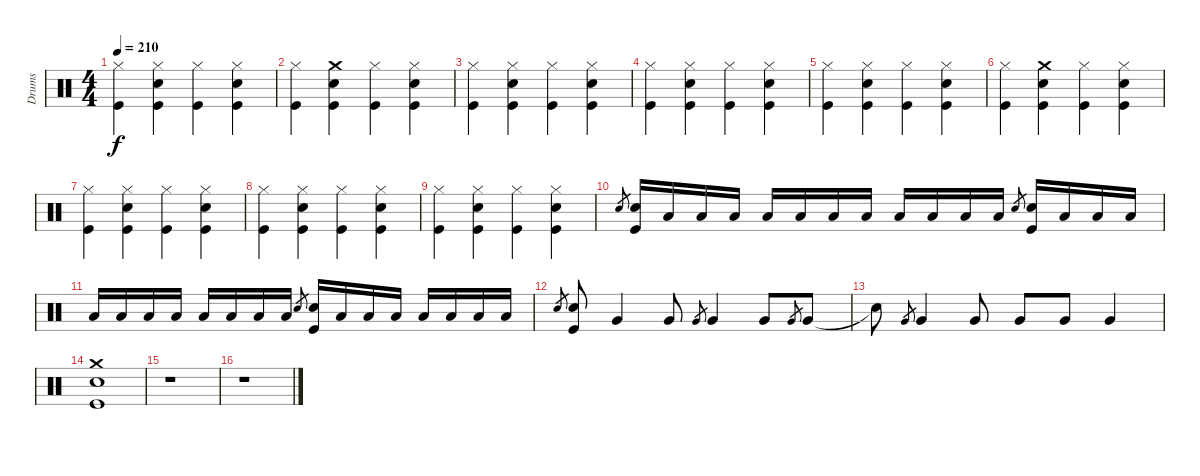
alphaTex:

\track ("Drums" "Drums") {instrument percussion}
\staff {score}
\articulation defaults
\ts (4 4)
\tempo 210
\clef neutral
\ks c
("Hi-Hat (closed)" "Kick (hit)").4{dy f} ("Hi-Hat (closed)" "Snare (hit) 2" "Kick (hit)").4 ("Hi-Hat (closed)" "Kick (hit)").4 ("Hi-Hat (closed)" "Snare (hit) 2" "Kick (hit)").4 |
("Hi-Hat (closed)" "Kick (hit)").4 ("Crash medium (hit)" "Snare (hit) 2" "Kick (hit)").4 ("Hi-Hat (closed)" "Kick (hit)").4 ("Hi-Hat (closed)" "Snare (hit) 2" "Kick (hit)").4 |
("Hi-Hat (closed)" "Kick (hit)").4 ("Hi-Hat (closed)" "Snare (hit) 2" "Kick (hit)").4 ("Hi-Hat (closed)" "Kick (hit)").4 ("Hi-Hat (closed)" "Snare (hit) 2" "Kick (hit)").4 |
("Hi-Hat (closed)" "Kick (hit)").4 ("Hi-Hat (closed)" "Snare (hit) 2" "Kick (hit)").4 ("Hi-Hat (closed)" "Kick (hit)").4 ("Hi-Hat (closed)" "Snare (hit) 2" "Kick (hit)").4 |
("Hi-Hat (closed)" "Kick (hit)").4 ("Hi-Hat (closed)" "Snare (hit) 2" "Kick (hit)").4 ("Hi-Hat (closed)" "Kick (hit)").4 ("Hi-Hat (closed)" "Snare (hit) 2" "Kick (hit)").4 |
("Hi-Hat (closed)" "Kick (hit)").4 ("Crash medium (hit)" "Snare (hit) 2" "Kick (hit)").4 ("Hi-Hat (closed)" "Kick (hit)").4 ("Hi-Hat (closed)" "Snare (hit) 2" "Kick (hit)").4 |
("Hi-Hat (closed)" "Kick (hit)").4 ("Hi-Hat (closed)" "Snare (hit) 2" "Kick (hit)").4 ("Hi-Hat (closed)" "Kick (hit)").4 ("Hi-Hat (closed)" "Snare (hit) 2" "Kick (hit)").4 |
("Hi-Hat (closed)" "Kick (hit)").4 ("Hi-Hat (closed)" "Snare (hit) 2" "Kick (hit)").4 ("Hi-Hat (closed)" "Kick (hit)").4 ("Hi-Hat (closed)" "Snare (hit) 2" "Kick (hit)").4 |
("Hi-Hat (closed)" "Kick (hit)").4 ("Hi-Hat (closed)" "Snare (hit) 2" "Kick (hit)").4 ("Hi-Hat (closed)" "Kick (hit)").4 ("Hi-Hat (closed)" "Snare (hit) 2" "Kick (hit)").4 |
"Snare (hit) 2".8{gr} ("Snare (hit) 2" "Kick (hit)").16 "Low Tom (hit)".16 "Low Tom (hit)".16 "Low Tom (hit)".16 "Low Tom (hit)".16 "Low Tom (hit)".16 "Low Tom (hit)".16 "Low Tom (hit)".16 "Low Tom (hit)".16 "Low Tom (hit)".16 "Low Tom (hit)".16 "Low Tom (hit)".16 "Snare (hit) 2".8{gr} ("Snare (hit) 2" "Kick (hit)").16 "Low Tom (hit)".16 "Low Tom (hit)".16 "Low Tom (hit)".16 |
"Low Tom (hit)".16 "Low Tom (hit)".16 "Low Tom (hit)".16 "Low Tom (hit)".16 "Low Tom (hit)".16 "Low Tom (hit)".16 "Low Tom (hit)".16 "Low Tom (hit)".16 "Snare (hit) 2".8{gr} ("Snare (hit) 2" "Kick (hit)").16 "Low Tom (hit)".16 "Low Tom (hit)".16 "Low Tom (hit)".16 "Low Tom (hit)".16 "Low Tom (hit)".16 "Low Tom (hit)".16 "Low Tom (hit)".16 |
"Snare (hit) 2".8{gr} ("Snare (hit) 2" "Kick (hit)").8 "Very Low Tom (hit)".4 "Very Low Tom (hit)".8 "Very Low Tom (hit)".8{gr} "Very Low Tom (hit)".4 "Very Low Tom (hit)".8 "Very Low Tom (hit)".8{gr} "Very Low Tom (hit)".8 |
"Snare (hit)"{t}.8 "Very Low Tom (hit)".8{gr} "Very Low Tom (hit)".4 "Very Low Tom (hit)".8 "Very Low Tom (hit)".8 "Very Low Tom (hit)".8 "Very Low Tom (hit)".4 |
("Crash medium (hit)" "Snare (hit) 2" "Kick (hit)").1 |
r.1 |
r.1
